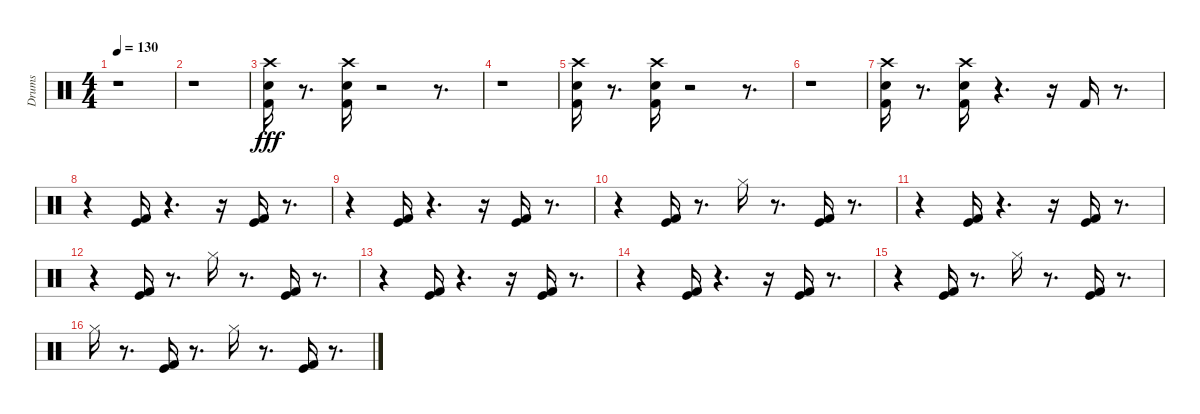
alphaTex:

\track ("Drums" "Drums") {instrument percussion}
\staff {score}
\articulation defaults
\ts (4 4)
\tempo 130
\clef neutral
\ks c
r.1{dy fff} |
r.1 |
("Crash high (hit)" "Snare (hit) 2" "Kick (hit) 2").16 r.8{d} ("Crash high (hit)" "Snare (hit) 2" "Kick (hit) 2").16 r.2 r.8{d} |
r.1 |
("Crash high (hit)" "Snare (hit) 2" "Kick (hit) 2").16 r.8{d} ("Crash high (hit)" "Snare (hit) 2" "Kick (hit) 2").16 r.2 r.8{d} |
r.1 |
("Crash high (hit)" "Snare (hit) 2" "Kick (hit) 2").16 r.8{d} ("Crash high (hit)" "Snare (hit) 2" "Kick (hit) 2").16 r.4{d} r.16 "Kick (hit) 2".16 r.8{d} |
r.4 ("Kick (hit) 2" "Kick (hit)").16 r.4{d} r.16 ("Kick (hit) 2" "Kick (hit)").16 r.8{d} |
r.4 ("Kick (hit) 2" "Kick (hit)").16 r.4{d} r.16 ("Kick (hit) 2" "Kick (hit)").16 r.8{d} |
r.4 ("Kick (hit) 2" "Kick (hit)").16 r.8{d} "Hi-Hat (closed)".16 r.8{d} ("Kick (hit) 2" "Kick (hit)").16 r.8{d} |
r.4 ("Kick (hit) 2" "Kick (hit)").16 r.4{d} r.16 ("Kick (hit) 2" "Kick (hit)").16 r.8{d} |
r.4 ("Kick (hit) 2" "Kick (hit)").16 r.8{d} "Hi-Hat (closed)".16 r.8{d} ("Kick (hit) 2" "Kick (hit)").16 r.8{d} |
r.4 ("Kick (hit) 2" "Kick (hit)").16 r.4{d} r.16 ("Kick (hit) 2" "Kick (hit)").16 r.8{d} |
r.4 ("Kick (hit) 2" "Kick (hit)").16 r.4{d} r.16 ("Kick (hit) 2" "Kick (hit)").16 r.8{d} |
r.4 ("Kick (hit) 2" "Kick (hit)").16 r.8{d} "Hi-Hat (closed)".16 r.8{d} ("Kick (hit) 2" "Kick (hit)").16 r.8{d} |
"Hi-Hat (closed)".16 r.8{d} ("Kick (hit) 2" "Kick (hit)").16 r.8{d} "Hi-Hat (closed)".16 r.8{d} ("Kick (hit) 2" "Kick (hit)").16 r.8{d}
